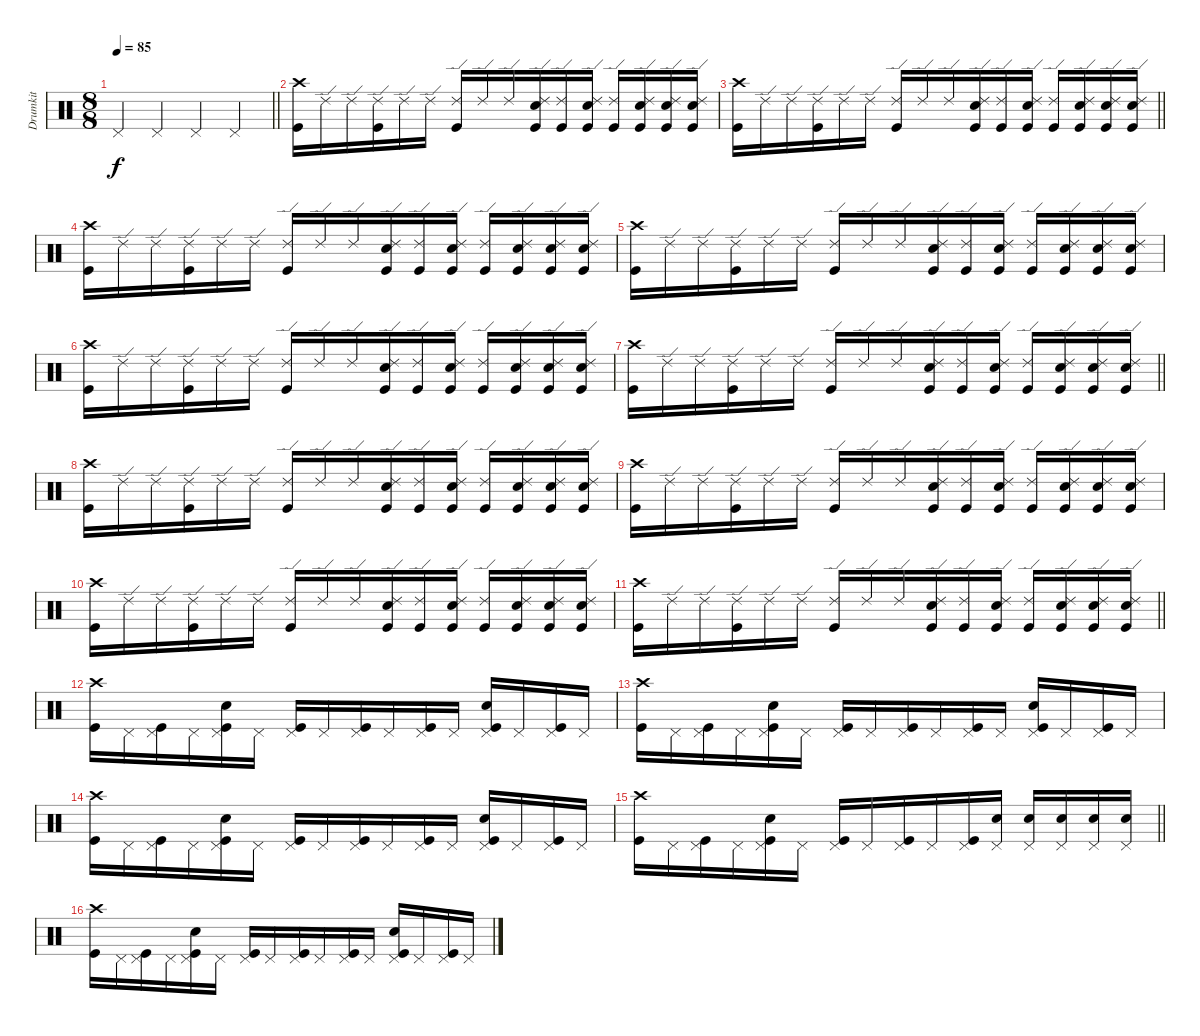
\track ("Drumkit" "Drumkit") {instrument percussion}
\staff {score}
\articulation defaults
\ts (8 8)
\tempo 85
\clef neutral
\barLineRight lightlight
\ks c "Pedal Hi-Hat (hit)".4{dy f} "Pedal Hi-Hat (hit)".4 "Pedal Hi-Hat (hit)".4 "Pedal Hi-Hat (hit)".4
|
("Kick (hit)" "Crash high (hit)").16 "Ride (edge) 2".16 "Ride (edge) 2".16 ("Kick (hit)" "Ride (edge) 2").16 "Ride (edge) 2".16 "Ride (edge) 2".16 ("Kick (hit)" "Ride (edge) 2").16 "Ride (edge) 2".16 "Ride (edge) 2".16 ("Kick (hit)" "Snare (hit) 2" "Ride (edge) 2").16 ("Kick (hit)" "Ride (edge) 2").16 ("Kick (hit)" "Snare (hit) 2" "Ride (edge) 2").16 ("Kick (hit)" "Ride (edge) 2").16 ("Kick (hit)" "Snare (hit) 2" "Ride (edge) 2").16 ("Kick (hit)" "Snare (hit) 2" "Ride (edge) 2").16 ("Kick (hit)" "Snare (hit) 2" "Ride (edge) 2").16 |
\barLineRight lightlight
("Kick (hit)" "Crash high (hit)").16 "Ride (edge) 2".16 "Ride (edge) 2".16 ("Kick (hit)" "Ride (edge) 2").16 "Ride (edge) 2".16 "Ride (edge) 2".16 ("Kick (hit)" "Ride (edge) 2").16 "Ride (edge) 2".16 "Ride (edge) 2".16 ("Kick (hit)" "Snare (hit) 2" "Ride (edge) 2").16 ("Kick (hit)" "Ride (edge) 2").16 ("Kick (hit)" "Snare (hit) 2" "Ride (edge) 2").16 ("Kick (hit)" "Ride (edge) 2").16 ("Kick (hit)" "Snare (hit) 2" "Ride (edge) 2").16 ("Kick (hit)" "Snare (hit) 2" "Ride (edge) 2").16 ("Kick (hit)" "Snare (hit) 2" "Ride (edge) 2").16 |
("Kick (hit)" "Crash high (hit)").16 "Ride (edge) 2".16 "Ride (edge) 2".16 ("Kick (hit)" "Ride (edge) 2").16 "Ride (edge) 2".16 "Ride (edge) 2".16 ("Kick (hit)" "Ride (edge) 2").16 "Ride (edge) 2".16 "Ride (edge) 2".16 ("Kick (hit)" "Snare (hit) 2" "Ride (edge) 2").16 ("Kick (hit)" "Ride (edge) 2").16 ("Kick (hit)" "Snare (hit) 2" "Ride (edge) 2").16 ("Kick (hit)" "Ride (edge) 2").16 ("Kick (hit)" "Snare (hit) 2" "Ride (edge) 2").16 ("Kick (hit)" "Snare (hit) 2" "Ride (edge) 2").16 ("Kick (hit)" "Snare (hit) 2" "Ride (edge) 2").16 |
("Kick (hit)" "Crash high (hit)").16 "Ride (edge) 2".16 "Ride (edge) 2".16 ("Kick (hit)" "Ride (edge) 2").16 "Ride (edge) 2".16 "Ride (edge) 2".16 ("Kick (hit)" "Ride (edge) 2").16 "Ride (edge) 2".16 "Ride (edge) 2".16 ("Kick (hit)" "Snare (hit) 2" "Ride (edge) 2").16 ("Kick (hit)" "Ride (edge) 2").16 ("Kick (hit)" "Snare (hit) 2" "Ride (edge) 2").16 ("Kick (hit)" "Ride (edge) 2").16 ("Kick (hit)" "Snare (hit) 2" "Ride (edge) 2").16 ("Kick (hit)" "Snare (hit) 2" "Ride (edge) 2").16 ("Kick (hit)" "Snare (hit) 2" "Ride (edge) 2").16 |
("Kick (hit)" "Crash high (hit)").16 "Ride (edge) 2".16 "Ride (edge) 2".16 ("Kick (hit)" "Ride (edge) 2").16 "Ride (edge) 2".16 "Ride (edge) 2".16 ("Kick (hit)" "Ride (edge) 2").16 "Ride (edge) 2".16 "Ride (edge) 2".16 ("Kick (hit)" "Snare (hit) 2" "Ride (edge) 2").16 ("Kick (hit)" "Ride (edge) 2").16 ("Kick (hit)" "Snare (hit) 2" "Ride (edge) 2").16 ("Kick (hit)" "Ride (edge) 2").16 ("Kick (hit)" "Snare (hit) 2" "Ride (edge) 2").16 ("Kick (hit)" "Snare (hit) 2" "Ride (edge) 2").16 ("Kick (hit)" "Snare (hit) 2" "Ride (edge) 2").16 |
\barLineRight lightlight
("Kick (hit)" "Crash high (hit)").16 "Ride (edge) 2".16 "Ride (edge) 2".16 ("Kick (hit)" "Ride (edge) 2").16 "Ride (edge) 2".16 "Ride (edge) 2".16 ("Kick (hit)" "Ride (edge) 2").16 "Ride (edge) 2".16 "Ride (edge) 2".16 ("Kick (hit)" "Snare (hit) 2" "Ride (edge) 2").16 ("Kick (hit)" "Ride (edge) 2").16 ("Kick (hit)" "Snare (hit) 2" "Ride (edge) 2").16 ("Kick (hit)" "Ride (edge) 2").16 ("Kick (hit)" "Snare (hit) 2" "Ride (edge) 2").16 ("Kick (hit)" "Snare (hit) 2" "Ride (edge) 2").16 ("Kick (hit)" "Snare (hit) 2" "Ride (edge) 2").16 |
("Kick (hit)" "Crash high (hit)").16 "Ride (edge) 2".16 "Ride (edge) 2".16 ("Kick (hit)" "Ride (edge) 2").16 "Ride (edge) 2".16 "Ride (edge) 2".16 ("Kick (hit)" "Ride (edge) 2").16 "Ride (edge) 2".16 "Ride (edge) 2".16 ("Kick (hit)" "Snare (hit) 2" "Ride (edge) 2").16 ("Kick (hit)" "Ride (edge) 2").16 ("Kick (hit)" "Snare (hit) 2" "Ride (edge) 2").16 ("Kick (hit)" "Ride (edge) 2").16 ("Kick (hit)" "Snare (hit) 2" "Ride (edge) 2").16 ("Kick (hit)" "Snare (hit) 2" "Ride (edge) 2").16 ("Kick (hit)" "Snare (hit) 2" "Ride (edge) 2").16 |
("Kick (hit)" "Crash high (hit)").16 "Ride (edge) 2".16 "Ride (edge) 2".16 ("Kick (hit)" "Ride (edge) 2").16 "Ride (edge) 2".16 "Ride (edge) 2".16 ("Kick (hit)" "Ride (edge) 2").16 "Ride (edge) 2".16 "Ride (edge) 2".16 ("Kick (hit)" "Snare (hit) 2" "Ride (edge) 2").16 ("Kick (hit)" "Ride (edge) 2").16 ("Kick (hit)" "Snare (hit) 2" "Ride (edge) 2").16 ("Kick (hit)" "Ride (edge) 2").16 ("Kick (hit)" "Snare (hit) 2" "Ride (edge) 2").16 ("Kick (hit)" "Snare (hit) 2" "Ride (edge) 2").16 ("Kick (hit)" "Snare (hit) 2" "Ride (edge) 2").16 |
("Kick (hit)" "Crash high (hit)").16 "Ride (edge) 2".16 "Ride (edge) 2".16 ("Kick (hit)" "Ride (edge) 2").16 "Ride (edge) 2".16 "Ride (edge) 2".16 ("Kick (hit)" "Ride (edge) 2").16 "Ride (edge) 2".16 "Ride (edge) 2".16 ("Kick (hit)" "Snare (hit) 2" "Ride (edge) 2").16 ("Kick (hit)" "Ride (edge) 2").16 ("Kick (hit)" "Snare (hit) 2" "Ride (edge) 2").16 ("Kick (hit)" "Ride (edge) 2").16 ("Kick (hit)" "Snare (hit) 2" "Ride (edge) 2").16 ("Kick (hit)" "Snare (hit) 2" "Ride (edge) 2").16 ("Kick (hit)" "Snare (hit) 2" "Ride (edge) 2").16 |
\barLineRight lightlight
("Kick (hit)" "Crash high (hit)").16 "Ride (edge) 2".16 "Ride (edge) 2".16 ("Kick (hit)" "Ride (edge) 2").16 "Ride (edge) 2".16 "Ride (edge) 2".16 ("Kick (hit)" "Ride (edge) 2").16 "Ride (edge) 2".16 "Ride (edge) 2".16 ("Kick (hit)" "Snare (hit) 2" "Ride (edge) 2").16 ("Kick (hit)" "Ride (edge) 2").16 ("Kick (hit)" "Snare (hit) 2" "Ride (edge) 2").16 ("Kick (hit)" "Ride (edge) 2").16 ("Kick (hit)" "Snare (hit) 2" "Ride (edge) 2").16 ("Kick (hit)" "Snare (hit) 2" "Ride (edge) 2").16 ("Kick (hit)" "Snare (hit) 2" "Ride (edge) 2").16 |
("Kick (hit)" "Crash high (hit)").16 "Pedal Hi-Hat (hit)".16 ("Kick (hit)" "Pedal Hi-Hat (hit)").16 "Pedal Hi-Hat (hit)".16 ("Kick (hit)" "Snare (hit) 2" "Pedal Hi-Hat (hit)").16 "Pedal Hi-Hat (hit)".16 ("Kick (hit)" "Pedal Hi-Hat (hit)").16 "Pedal Hi-Hat (hit)".16 ("Kick (hit)" "Pedal Hi-Hat (hit)").16 "Pedal Hi-Hat (hit)".16 ("Kick (hit)" "Pedal Hi-Hat (hit)").16 "Pedal Hi-Hat (hit)".16 ("Kick (hit)" "Snare (hit) 2" "Pedal Hi-Hat (hit)").16 "Pedal Hi-Hat (hit)".16 ("Kick (hit)" "Pedal Hi-Hat (hit)").16 "Pedal Hi-Hat (hit)".16 |
("Kick (hit)" "Crash high (hit)").16 "Pedal Hi-Hat (hit)".16 ("Kick (hit)" "Pedal Hi-Hat (hit)").16 "Pedal Hi-Hat (hit)".16 ("Kick (hit)" "Snare (hit) 2" "Pedal Hi-Hat (hit)").16 "Pedal Hi-Hat (hit)".16 ("Kick (hit)" "Pedal Hi-Hat (hit)").16 "Pedal Hi-Hat (hit)".16 ("Kick (hit)" "Pedal Hi-Hat (hit)").16 "Pedal Hi-Hat (hit)".16 ("Kick (hit)" "Pedal Hi-Hat (hit)").16 "Pedal Hi-Hat (hit)".16 ("Kick (hit)" "Snare (hit) 2" "Pedal Hi-Hat (hit)").16 "Pedal Hi-Hat (hit)".16 ("Kick (hit)" "Pedal Hi-Hat (hit)").16 "Pedal Hi-Hat (hit)".16 |
("Kick (hit)" "Crash high (hit)").16 "Pedal Hi-Hat (hit)".16 ("Kick (hit)" "Pedal Hi-Hat (hit)").16 "Pedal Hi-Hat (hit)".16 ("Kick (hit)" "Snare (hit) 2" "Pedal Hi-Hat (hit)").16 "Pedal Hi-Hat (hit)".16 ("Kick (hit)" "Pedal Hi-Hat (hit)").16 "Pedal Hi-Hat (hit)".16 ("Kick (hit)" "Pedal Hi-Hat (hit)").16 "Pedal Hi-Hat (hit)".16 ("Kick (hit)" "Pedal Hi-Hat (hit)").16 "Pedal Hi-Hat (hit)".16 ("Kick (hit)" "Snare (hit) 2" "Pedal Hi-Hat (hit)").16 "Pedal Hi-Hat (hit)".16 ("Kick (hit)" "Pedal Hi-Hat (hit)").16 "Pedal Hi-Hat (hit)".16 |
\barLineRight lightlight
("Kick (hit)" "Crash high (hit)").16 "Pedal Hi-Hat (hit)".16 ("Kick (hit)" "Pedal Hi-Hat (hit)").16 "Pedal Hi-Hat (hit)".16 ("Kick (hit)" "Snare (hit) 2" "Pedal Hi-Hat (hit)").16 "Pedal Hi-Hat (hit)".16 ("Kick (hit)" "Pedal Hi-Hat (hit)").16 "Pedal Hi-Hat (hit)".16 ("Kick (hit)" "Pedal Hi-Hat (hit)").16 "Pedal Hi-Hat (hit)".16 ("Kick (hit)" "Pedal Hi-Hat (hit)").16 ("Snare (hit) 2" "Pedal Hi-Hat (hit)").16 ("Snare (hit) 2" "Pedal Hi-Hat (hit)").16 ("Snare (hit) 2" "Pedal Hi-Hat (hit)").16 ("Snare (hit) 2" "Pedal Hi-Hat (hit)").16 ("Snare (hit) 2" "Pedal Hi-Hat (hit)").16 |
("Kick (hit)" "Crash high (hit)").16 "Pedal Hi-Hat (hit)".16 ("Kick (hit)" "Pedal Hi-Hat (hit)").16 "Pedal Hi-Hat (hit)".16 ("Kick (hit)" "Snare (hit) 2" "Pedal Hi-Hat (hit)").16 "Pedal Hi-Hat (hit)".16 ("Kick (hit)" "Pedal Hi-Hat (hit)").16 "Pedal Hi-Hat (hit)".16 ("Kick (hit)" "Pedal Hi-Hat (hit)").16 "Pedal Hi-Hat (hit)".16 ("Kick (hit)" "Pedal Hi-Hat (hit)").16 "Pedal Hi-Hat (hit)".16 ("Kick (hit)" "Snare (hit) 2" "Pedal Hi-Hat (hit)").16 "Pedal Hi-Hat (hit)".16 ("Kick (hit)" "Pedal Hi-Hat (hit)").16 "Pedal Hi-Hat (hit)".16
